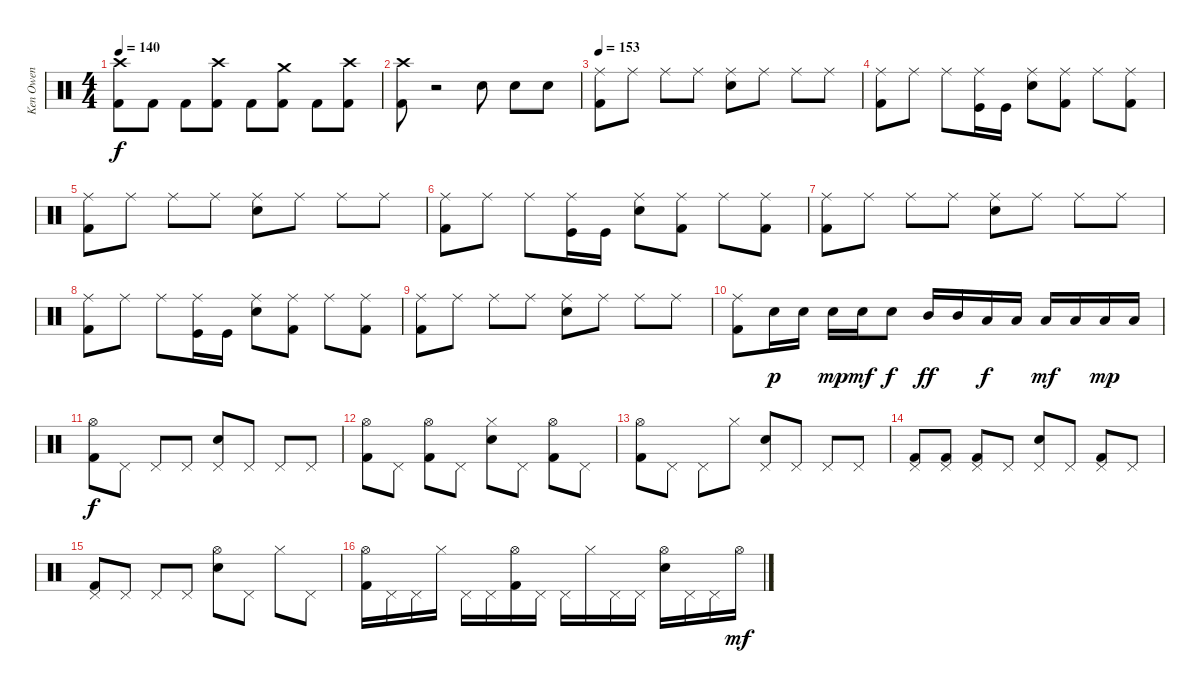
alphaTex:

\track ("Ken Owen" "Ken Owen") {instrument percussion}
\staff {score}
\articulation defaults
\ts (4 4)
\tempo 140
\clef neutral
\ks c
("Kick (hit) 2" "Crash high (hit)").8{dy f} "Kick (hit) 2".8 "Kick (hit) 2".8 ("Kick (hit) 2" "Crash high (hit)").8 "Kick (hit) 2".8 ("Kick (hit) 2" "Crash medium (hit)").8 "Kick (hit) 2".8 ("Kick (hit) 2" "Crash high (hit)").8 |
("Kick (hit) 2" "Crash high (hit)").8 r.2 "Electric Snare (hit)".8 "Electric Snare (hit)".8 "Electric Snare (hit)".8 |
\tempo 153
("Ride (middle)" "Kick (hit) 2").8 "Ride (middle)".8 "Ride (middle)".8 "Ride (middle)".8 ("Ride (middle)" "Electric Snare (hit)").8 "Ride (middle)".8 "Ride (middle)".8 "Ride (middle)".8 |
("Ride (middle)" "Kick (hit) 2").8 "Ride (middle)".8 "Ride (middle)".8 ("Ride (middle)" "Kick (hit)").16 "Kick (hit)".16 ("Ride (middle)" "Electric Snare (hit)").8 ("Ride (middle)" "Kick (hit) 2").8 "Ride (middle)".8 ("Ride (middle)" "Kick (hit) 2").8 |
("Ride (middle)" "Kick (hit) 2").8 "Ride (middle)".8 "Ride (middle)".8 "Ride (middle)".8 ("Ride (middle)" "Electric Snare (hit)").8 "Ride (middle)".8 "Ride (middle)".8 "Ride (middle)".8 |
("Ride (middle)" "Kick (hit) 2").8 "Ride (middle)".8 "Ride (middle)".8 ("Ride (middle)" "Kick (hit)").16 "Kick (hit)".16 ("Ride (middle)" "Electric Snare (hit)").8 ("Ride (middle)" "Kick (hit) 2").8 "Ride (middle)".8 ("Ride (middle)" "Kick (hit) 2").8 |
("Ride (middle)" "Kick (hit) 2").8 "Ride (middle)".8 "Ride (middle)".8 "Ride (middle)".8 ("Ride (middle)" "Electric Snare (hit)").8 "Ride (middle)".8 "Ride (middle)".8 "Ride (middle)".8 |
("Ride (middle)" "Kick (hit) 2").8 "Ride (middle)".8 "Ride (middle)".8 ("Ride (middle)" "Kick (hit)").16 "Kick (hit)".16 ("Ride (middle)" "Electric Snare (hit)").8 ("Ride (middle)" "Kick (hit) 2").8 "Ride (middle)".8 ("Ride (middle)" "Kick (hit) 2").8 |
("Ride (middle)" "Kick (hit) 2").8 "Ride (middle)".8 "Ride (middle)".8 "Ride (middle)".8 ("Ride (middle)" "Electric Snare (hit)").8 "Ride (middle)".8 "Ride (middle)".8 "Ride (middle)".8 |
("Ride (middle)" "Kick (hit) 2").8 "Electric Snare (hit)".16{dy p balance 5} "Electric Snare (hit)".16 "Electric Snare (hit)".16{dy mp balance 6} "Electric Snare (hit)".16{dy mf} "Electric Snare (hit)".8{dy f balance 7} "Mid Tom (hit)".16{dy ff balance 9} "Mid Tom (hit)".16{balance 10} "Low Tom (hit)".16{dy f} "Low Tom (hit)".16 "Low Tom (hit)".16{dy mf balance 11} "Low Tom (hit)".16{balance 12} "Low Tom (hit)".16{dy mp balance 13} "Low Tom (hit)".16{balance 14} |
("Hi-Hat (open)" "Kick (hit) 2").8{dy f balance 8} "Pedal Hi-Hat (hit)".8 "Pedal Hi-Hat (hit)".8 "Pedal Hi-Hat (hit)".8 ("Pedal Hi-Hat (hit)" "Electric Snare (hit)").8 "Pedal Hi-Hat (hit)".8 "Pedal Hi-Hat (hit)".8 "Pedal Hi-Hat (hit)".8 |
("Hi-Hat (open)" "Kick (hit) 2").8 "Pedal Hi-Hat (hit)".8 ("Hi-Hat (open)" "Kick (hit) 2").8 "Pedal Hi-Hat (hit)".8 ("Hi-Hat (closed)" "Electric Snare (hit)").8 "Pedal Hi-Hat (hit)".8 ("Hi-Hat (open)" "Kick (hit) 2").8 "Pedal Hi-Hat (hit)".8 |
("Hi-Hat (open)" "Kick (hit) 2").8 "Pedal Hi-Hat (hit)".8 "Pedal Hi-Hat (hit)".8 "Hi-Hat (closed)".8 ("Pedal Hi-Hat (hit)" "Electric Snare (hit)").8 "Pedal Hi-Hat (hit)".8 "Pedal Hi-Hat (hit)".8 "Pedal Hi-Hat (hit)".8 |
("Pedal Hi-Hat (hit)" "Kick (hit) 2").8 ("Pedal Hi-Hat (hit)" "Kick (hit) 2").8 ("Pedal Hi-Hat (hit)" "Kick (hit) 2").8 "Pedal Hi-Hat (hit)".8 ("Pedal Hi-Hat (hit)" "Electric Snare (hit)").8 "Pedal Hi-Hat (hit)".8 ("Pedal Hi-Hat (hit)" "Kick (hit) 2").8 "Pedal Hi-Hat (hit)".8 |
("Pedal Hi-Hat (hit)" "Kick (hit) 2").8 "Pedal Hi-Hat (hit)".8 "Pedal Hi-Hat (hit)".8 "Pedal Hi-Hat (hit)".8 ("Hi-Hat (open)" "Electric Snare (hit)").8 "Pedal Hi-Hat (hit)".8 "Hi-Hat (closed)".8 "Pedal Hi-Hat (hit)".8 |
("Hi-Hat (open)" "Kick (hit) 2").16 "Pedal Hi-Hat (hit)".16 "Pedal Hi-Hat (hit)".16 "Hi-Hat (closed)".16 "Pedal Hi-Hat (hit)".16 "Pedal Hi-Hat (hit)".16 ("Hi-Hat (open)" "Kick (hit) 2").16 "Pedal Hi-Hat (hit)".16 "Pedal Hi-Hat (hit)".16 "Hi-Hat (closed)".16 "Pedal Hi-Hat (hit)".16 "Pedal Hi-Hat (hit)".16 ("Hi-Hat (open)" "Electric Snare (hit)").16 "Pedal Hi-Hat (hit)".16 "Pedal Hi-Hat (hit)".16 "Hi-Hat (open)".16{dy mf}
